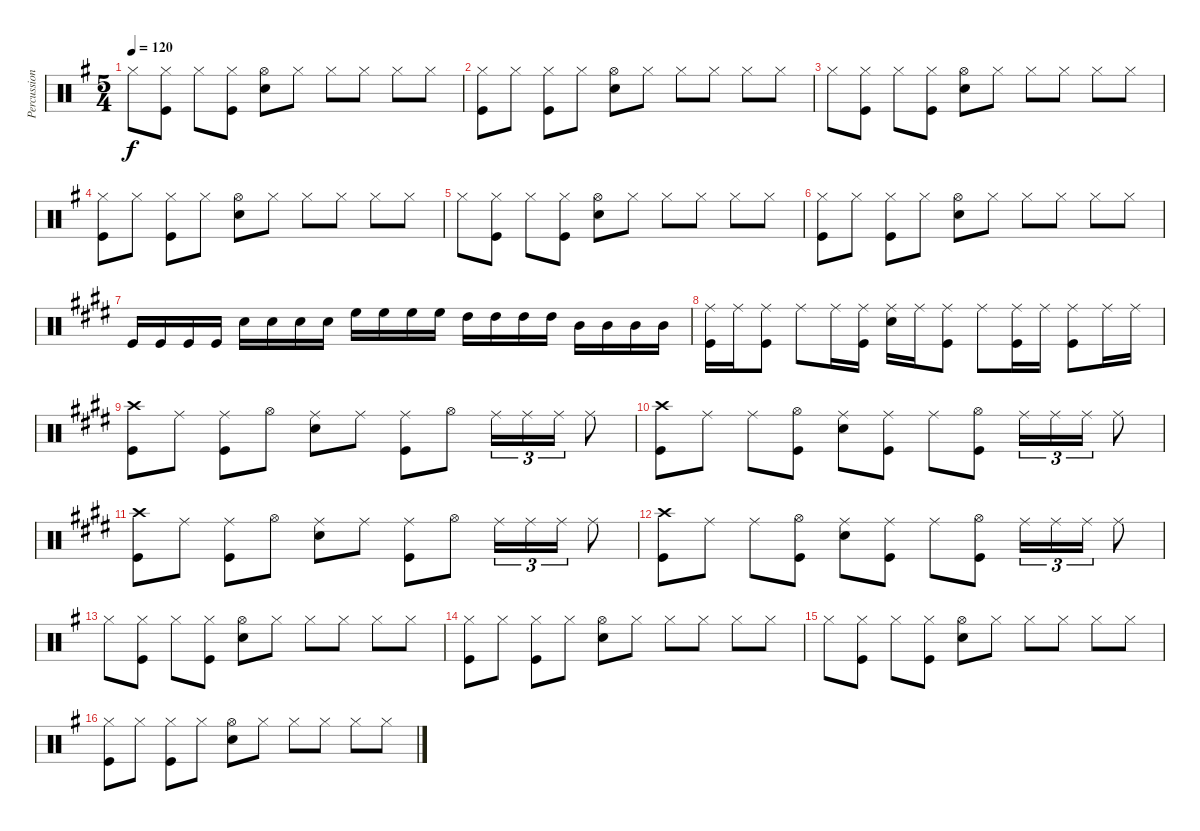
\track ("Percussion" "Percussion") {instrument percussion}
\staff {score}
\articulation defaults
\ts (5 4)
\tempo 120
\clef neutral
\ks g "Hi-Hat (closed)".8{dy f}
("Hi-Hat (closed)" "Kick (hit)").8 "Hi-Hat (closed)".8 ("Hi-Hat (closed)" "Kick (hit)").8 ("Hi-Hat (open)" "Snare (hit) 2").8 "Hi-Hat (closed)".8 "Hi-Hat (closed)".8 "Hi-Hat (closed)".8 "Hi-Hat (closed)".8 "Hi-Hat (closed)".8 |
("Hi-Hat (closed)" "Kick (hit)").8 "Hi-Hat (closed)".8 ("Hi-Hat (closed)" "Kick (hit)").8 "Hi-Hat (closed)".8 ("Hi-Hat (open)" "Snare (hit) 2").8 "Hi-Hat (closed)".8 "Hi-Hat (closed)".8 "Hi-Hat (closed)".8 "Hi-Hat (closed)".8 "Hi-Hat (closed)".8 |
"Hi-Hat (closed)".8 ("Hi-Hat (closed)" "Kick (hit)").8 "Hi-Hat (closed)".8 ("Hi-Hat (closed)" "Kick (hit)").8 ("Hi-Hat (open)" "Snare (hit) 2").8 "Hi-Hat (closed)".8 "Hi-Hat (closed)".8 "Hi-Hat (closed)".8 "Hi-Hat (closed)".8 "Hi-Hat (closed)".8 |
("Hi-Hat (closed)" "Kick (hit)").8 "Hi-Hat (closed)".8 ("Hi-Hat (closed)" "Kick (hit)").8 "Hi-Hat (closed)".8 ("Hi-Hat (open)" "Snare (hit) 2").8 "Hi-Hat (closed)".8 "Hi-Hat (closed)".8 "Hi-Hat (closed)".8 "Hi-Hat (closed)".8 "Hi-Hat (closed)".8 |
"Hi-Hat (closed)".8 ("Hi-Hat (closed)" "Kick (hit)").8 "Hi-Hat (closed)".8 ("Hi-Hat (closed)" "Kick (hit)").8 ("Hi-Hat (open)" "Snare (hit) 2").8 "Hi-Hat (closed)".8 "Hi-Hat (closed)".8 "Hi-Hat (closed)".8 "Hi-Hat (closed)".8 "Hi-Hat (closed)".8 |
("Hi-Hat (closed)" "Kick (hit)").8 "Hi-Hat (closed)".8 ("Hi-Hat (closed)" "Kick (hit)").8 "Hi-Hat (closed)".8 ("Hi-Hat (open)" "Snare (hit) 2").8 "Hi-Hat (closed)".8 "Hi-Hat (closed)".8 "Hi-Hat (closed)".8 "Hi-Hat (closed)".8 "Hi-Hat (closed)".8 |
\ks e "Kick (hit)".16 "Kick (hit)".16 "Kick (hit)".16 "Kick (hit)".16 "Snare (hit) 2".16 "Snare (hit) 2".16 "Snare (hit) 2".16 "Snare (hit) 2".16 "High Floor Tom (hit)".16 "High Floor Tom (hit)".16 "High Floor Tom (hit)".16 "High Floor Tom (hit)".16 "High Tom (hit)".16 "High Tom (hit)".16 "High Tom (hit)".16 "High Tom (hit)".16 "Mid Tom (hit)".16 "Mid Tom (hit)".16 "Mid Tom (hit)".16 "Mid Tom (hit)".16
|
("Ride (middle)" "Kick (hit)").16 "Ride (middle)".16 ("Ride (middle)" "Kick (hit)").8 "Ride (middle)".8 "Ride (middle)".16 ("Ride (middle)" "Kick (hit)").16 ("Ride (middle)" "Snare (hit) 2").16 "Ride (middle)".16 ("Ride (middle)" "Kick (hit)").8 "Ride (middle)".8 ("Ride (middle)" "Kick (hit)").16 "Ride (middle)".16 ("Ride (middle)" "Kick (hit)").8 "Ride (middle)".16 "Ride (middle)".16 |
("Crash high (hit)" "Kick (hit)").8 "Ride (middle)".8 ("Ride (middle)" "Kick (hit)").8 "Hi-Hat (open)".8 ("Ride (middle)" "Snare (hit) 2").8 "Ride (middle)".8 ("Ride (middle)" "Kick (hit)").8 "Hi-Hat (open)".8 "Ride (middle)".16{tu (3 2)} "Ride (middle)".16{tu (3 2)} "Ride (middle)".16{tu (3 2)} "Ride (middle)".8 |
("Crash high (hit)" "Kick (hit)").8 "Ride (middle)".8 "Ride (middle)".8 ("Hi-Hat (open)" "Kick (hit)").8 ("Ride (middle)" "Snare (hit) 2").8 ("Ride (middle)" "Kick (hit)").8 "Ride (middle)".8 ("Hi-Hat (open)" "Kick (hit)").8 "Ride (middle)".16{tu (3 2)} "Ride (middle)".16{tu (3 2)} "Ride (middle)".16{tu (3 2)} "Ride (middle)".8 |
("Crash high (hit)" "Kick (hit)").8 "Ride (middle)".8 ("Ride (middle)" "Kick (hit)").8 "Hi-Hat (open)".8 ("Ride (middle)" "Snare (hit) 2").8 "Ride (middle)".8 ("Ride (middle)" "Kick (hit)").8 "Hi-Hat (open)".8 "Ride (middle)".16{tu (3 2)} "Ride (middle)".16{tu (3 2)} "Ride (middle)".16{tu (3 2)} "Ride (middle)".8 |
("Crash high (hit)" "Kick (hit)").8 "Ride (middle)".8 "Ride (middle)".8 ("Hi-Hat (open)" "Kick (hit)").8 ("Ride (middle)" "Snare (hit) 2").8 ("Ride (middle)" "Kick (hit)").8 "Ride (middle)".8 ("Hi-Hat (open)" "Kick (hit)").8 "Ride (middle)".16{tu (3 2)} "Ride (middle)".16{tu (3 2)} "Ride (middle)".16{tu (3 2)} "Ride (middle)".8 |
\ks g "Hi-Hat (closed)".8
("Hi-Hat (closed)" "Kick (hit)").8 "Hi-Hat (closed)".8 ("Hi-Hat (closed)" "Kick (hit)").8 ("Hi-Hat (open)" "Snare (hit) 2").8 "Hi-Hat (closed)".8 "Hi-Hat (closed)".8 "Hi-Hat (closed)".8 "Hi-Hat (closed)".8 "Hi-Hat (closed)".8 |
("Hi-Hat (closed)" "Kick (hit)").8 "Hi-Hat (closed)".8 ("Hi-Hat (closed)" "Kick (hit)").8 "Hi-Hat (closed)".8 ("Hi-Hat (open)" "Snare (hit) 2").8 "Hi-Hat (closed)".8 "Hi-Hat (closed)".8 "Hi-Hat (closed)".8 "Hi-Hat (closed)".8 "Hi-Hat (closed)".8 |
"Hi-Hat (closed)".8 ("Hi-Hat (closed)" "Kick (hit)").8 "Hi-Hat (closed)".8 ("Hi-Hat (closed)" "Kick (hit)").8 ("Hi-Hat (open)" "Snare (hit) 2").8 "Hi-Hat (closed)".8 "Hi-Hat (closed)".8 "Hi-Hat (closed)".8 "Hi-Hat (closed)".8 "Hi-Hat (closed)".8 |
("Hi-Hat (closed)" "Kick (hit)").8 "Hi-Hat (closed)".8 ("Hi-Hat (closed)" "Kick (hit)").8 "Hi-Hat (closed)".8 ("Hi-Hat (open)" "Snare (hit) 2").8 "Hi-Hat (closed)".8 "Hi-Hat (closed)".8 "Hi-Hat (closed)".8 "Hi-Hat (closed)".8 "Hi-Hat (closed)".8
